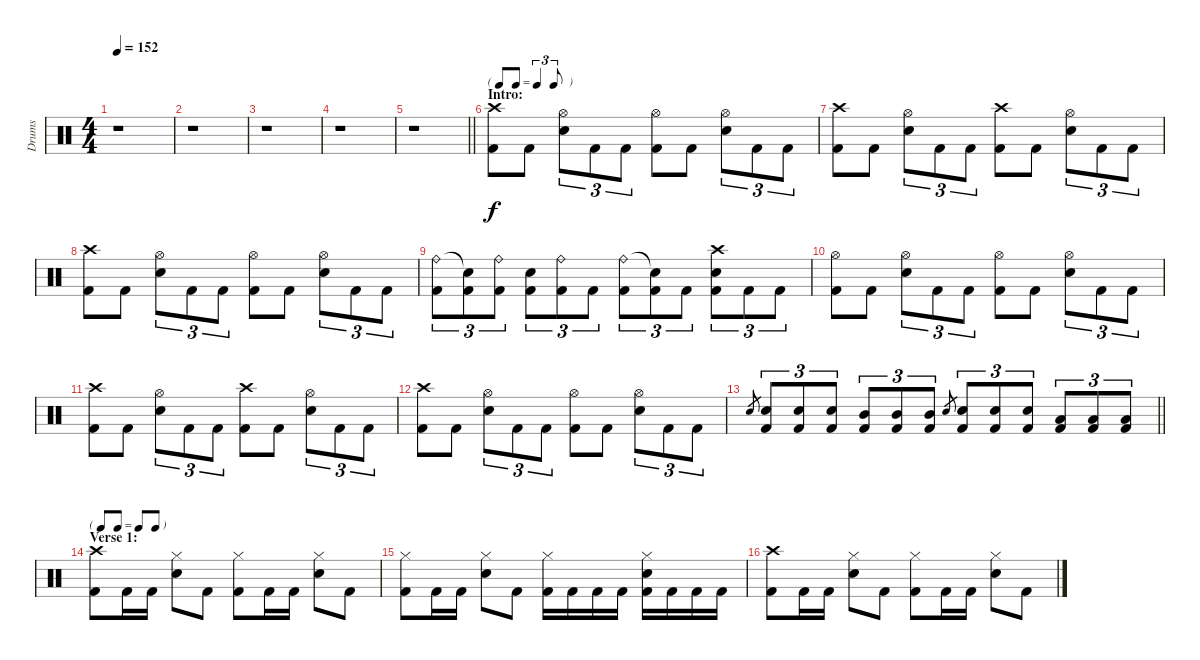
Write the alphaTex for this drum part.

\track ("Drums" "Drums") {instrument percussion}
\staff {score}
\articulation defaults
\ts (4 4)
\tempo 152
\clef neutral
\ks c
r.1{dy f} |
r.1 |
r.1 |
r.1 |
\barLineRight lightlight
r.1 |
\tf triplet8th
\section ("" "Intro:")
("Crash high (hit)" "Kick (hit) 2").8 "Kick (hit) 2".8 ("Hi-Hat (open)" "Snare (hit) 2").8{tu (3 2)} "Kick (hit) 2".8{tu (3 2)} "Kick (hit) 2".8{tu (3 2)} ("Hi-Hat (open)" "Kick (hit) 2").8 "Kick (hit) 2".8 ("Hi-Hat (open)" "Snare (hit) 2").8{tu (3 2)} "Kick (hit) 2".8{tu (3 2)} "Kick (hit) 2".8{tu (3 2)} |
("Crash high (hit)" "Kick (hit) 2").8 "Kick (hit) 2".8 ("Hi-Hat (open)" "Snare (hit) 2").8{tu (3 2)} "Kick (hit) 2".8{tu (3 2)} "Kick (hit) 2".8{tu (3 2)} ("Crash high (hit)" "Kick (hit) 2").8 "Kick (hit) 2".8 ("Hi-Hat (open)" "Snare (hit) 2").8{tu (3 2)} "Kick (hit) 2".8{tu (3 2)} "Kick (hit) 2".8{tu (3 2)} |
("Crash high (hit)" "Kick (hit) 2").8 "Kick (hit) 2".8 ("Hi-Hat (open)" "Snare (hit) 2").8{tu (3 2)} "Kick (hit) 2".8{tu (3 2)} "Kick (hit) 2".8{tu (3 2)} ("Hi-Hat (open)" "Kick (hit) 2").8 "Kick (hit) 2".8 ("Hi-Hat (open)" "Snare (hit) 2").8{tu (3 2)} "Kick (hit) 2".8{tu (3 2)} "Kick (hit) 2".8{tu (3 2)} |
("Ride (bell)" "Kick (hit) 2").8{tu (3 2)} ("Snare (hit)"{t} "Kick (hit) 2").8{tu (3 2)} ("Ride (bell)" "Kick (hit) 2").8{tu (3 2)} ("Snare (hit) 2" "Kick (hit) 2").8{tu (3 2)} ("Ride (bell)" "Kick (hit) 2").8{tu (3 2)} "Kick (hit) 2".8{tu (3 2)} ("Ride (bell)" "Kick (hit) 2").8{tu (3 2)} ("Snare (hit)"{t} "Kick (hit) 2").8{tu (3 2)} "Kick (hit) 2".8{tu (3 2)} ("Crash high (hit)" "Snare (hit) 2" "Kick (hit) 2").8{tu (3 2)} "Kick (hit) 2".8{tu (3 2)} "Kick (hit) 2".8{tu (3 2)} |
("Hi-Hat (open)" "Kick (hit) 2").8 "Kick (hit) 2".8 ("Hi-Hat (open)" "Snare (hit) 2").8{tu (3 2)} "Kick (hit) 2".8{tu (3 2)} "Kick (hit) 2".8{tu (3 2)} ("Hi-Hat (open)" "Kick (hit) 2").8 "Kick (hit) 2".8 ("Hi-Hat (open)" "Snare (hit) 2").8{tu (3 2)} "Kick (hit) 2".8{tu (3 2)} "Kick (hit) 2".8{tu (3 2)} |
("Crash high (hit)" "Kick (hit) 2").8 "Kick (hit) 2".8 ("Hi-Hat (open)" "Snare (hit) 2").8{tu (3 2)} "Kick (hit) 2".8{tu (3 2)} "Kick (hit) 2".8{tu (3 2)} ("Crash high (hit)" "Kick (hit) 2").8 "Kick (hit) 2".8 ("Hi-Hat (open)" "Snare (hit) 2").8{tu (3 2)} "Kick (hit) 2".8{tu (3 2)} "Kick (hit) 2".8{tu (3 2)} |
("Crash high (hit)" "Kick (hit) 2").8 "Kick (hit) 2".8 ("Hi-Hat (open)" "Snare (hit) 2").8{tu (3 2)} "Kick (hit) 2".8{tu (3 2)} "Kick (hit) 2".8{tu (3 2)} ("Hi-Hat (open)" "Kick (hit) 2").8 "Kick (hit) 2".8 ("Hi-Hat (open)" "Snare (hit) 2").8{tu (3 2)} "Kick (hit) 2".8{tu (3 2)} "Kick (hit) 2".8{tu (3 2)} |
\barLineRight lightlight "Snare (hit) 2".8{gr}
("Snare (hit) 2" "Kick (hit) 2").8{tu (3 2)} ("Snare (hit) 2" "Kick (hit) 2").8{tu (3 2)} ("Snare (hit) 2" "Kick (hit) 2").8{tu (3 2)} ("Mid Tom (hit)" "Kick (hit) 2").8{tu (3 2)} ("Mid Tom (hit)" "Kick (hit) 2").8{tu (3 2)} ("Mid Tom (hit)" "Kick (hit) 2").8{tu (3 2)} "Snare (hit) 2".8{gr} ("Snare (hit) 2" "Kick (hit) 2").8{tu (3 2)} ("Snare (hit) 2" "Kick (hit) 2").8{tu (3 2)} ("Snare (hit) 2" "Kick (hit) 2").8{tu (3 2)} ("Low Tom (hit)" "Kick (hit) 2").8{tu (3 2)} ("Low Tom (hit)" "Kick (hit) 2").8{tu (3 2)} ("Low Tom (hit)" "Kick (hit) 2").8{tu (3 2)} |
\tf none
\section ("" "Verse 1:")
("Crash high (hit)" "Kick (hit) 2").8 "Kick (hit) 2".16 "Kick (hit) 2".16 ("Hi-Hat (closed)" "Snare (hit) 2").8 "Kick (hit) 2".8 ("Hi-Hat (closed)" "Kick (hit) 2").8 "Kick (hit) 2".16 "Kick (hit) 2".16 ("Hi-Hat (closed)" "Snare (hit) 2").8 "Kick (hit) 2".8 |
("Hi-Hat (closed)" "Kick (hit) 2").8 "Kick (hit) 2".16 "Kick (hit) 2".16 ("Hi-Hat (closed)" "Snare (hit) 2").8 "Kick (hit) 2".8 ("Hi-Hat (closed)" "Kick (hit) 2").16 "Kick (hit) 2".16 "Kick (hit) 2".16 "Kick (hit) 2".16 ("Hi-Hat (closed)" "Snare (hit) 2" "Kick (hit) 2").16 "Kick (hit) 2".16 "Kick (hit) 2".16 "Kick (hit) 2".16 |
("Crash high (hit)" "Kick (hit) 2").8 "Kick (hit) 2".16 "Kick (hit) 2".16 ("Hi-Hat (closed)" "Snare (hit) 2").8 "Kick (hit) 2".8 ("Hi-Hat (closed)" "Kick (hit) 2").8 "Kick (hit) 2".16 "Kick (hit) 2".16 ("Hi-Hat (closed)" "Snare (hit) 2").8 "Kick (hit) 2".8
